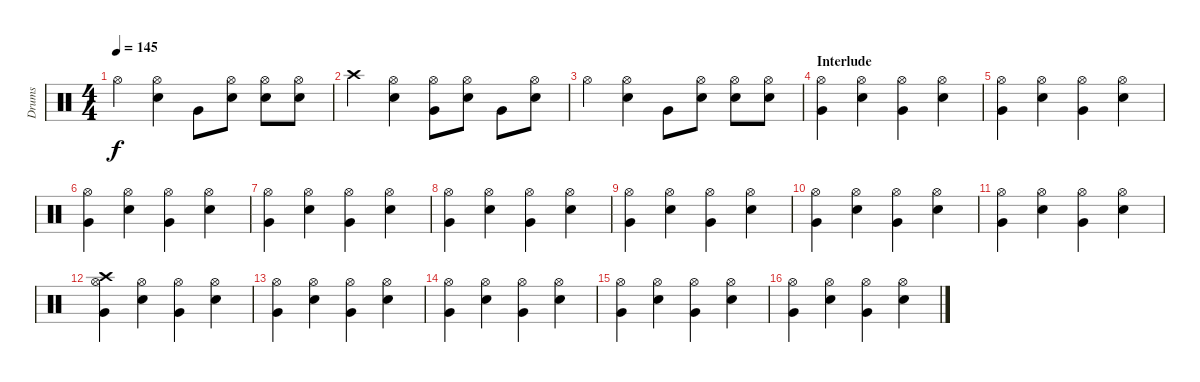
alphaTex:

\track ("Drums" "Drums") {instrument percussion}
\staff {score}
\articulation defaults
\ts (4 4)
\tempo 145
\clef neutral
\ks c "Hi-Hat (open)".4{dy f}
("Hi-Hat (open)" "Electric Snare (hit)").4 "Very Low Tom (hit)".8 ("Hi-Hat (open)" "Electric Snare (hit)").8 ("Hi-Hat (open)" "Electric Snare (hit)").8 ("Hi-Hat (open)" "Electric Snare (hit)").8 |
"Crash high (hit)".4 ("Hi-Hat (open)" "Electric Snare (hit)").4 ("Hi-Hat (open)" "Very Low Tom (hit)").8 ("Hi-Hat (open)" "Electric Snare (hit)").8 "Very Low Tom (hit)".8 ("Hi-Hat (open)" "Electric Snare (hit)").8 |
"Hi-Hat (open)".4 ("Hi-Hat (open)" "Electric Snare (hit)").4 "Very Low Tom (hit)".8 ("Hi-Hat (open)" "Electric Snare (hit)").8 ("Hi-Hat (open)" "Electric Snare (hit)").8 ("Hi-Hat (open)" "Electric Snare (hit)").8 |
\section ("" "Interlude")
("Hi-Hat (open)" "Very Low Tom (hit)").4 ("Hi-Hat (open)" "Electric Snare (hit)").4 ("Hi-Hat (open)" "Very Low Tom (hit)").4 ("Hi-Hat (open)" "Electric Snare (hit)").4 |
("Hi-Hat (open)" "Very Low Tom (hit)").4 ("Hi-Hat (open)" "Electric Snare (hit)").4 ("Hi-Hat (open)" "Very Low Tom (hit)").4 ("Hi-Hat (open)" "Electric Snare (hit)").4 |
("Hi-Hat (open)" "Very Low Tom (hit)").4 ("Hi-Hat (open)" "Electric Snare (hit)").4 ("Hi-Hat (open)" "Very Low Tom (hit)").4 ("Hi-Hat (open)" "Electric Snare (hit)").4 |
("Hi-Hat (open)" "Very Low Tom (hit)").4 ("Hi-Hat (open)" "Electric Snare (hit)").4 ("Hi-Hat (open)" "Very Low Tom (hit)").4 ("Hi-Hat (open)" "Electric Snare (hit)").4 |
("Hi-Hat (open)" "Very Low Tom (hit)").4 ("Hi-Hat (open)" "Electric Snare (hit)").4 ("Hi-Hat (open)" "Very Low Tom (hit)").4 ("Hi-Hat (open)" "Electric Snare (hit)").4 |
("Hi-Hat (open)" "Very Low Tom (hit)").4 ("Hi-Hat (open)" "Electric Snare (hit)").4 ("Hi-Hat (open)" "Very Low Tom (hit)").4 ("Hi-Hat (open)" "Electric Snare (hit)").4 |
("Hi-Hat (open)" "Very Low Tom (hit)").4 ("Hi-Hat (open)" "Electric Snare (hit)").4 ("Hi-Hat (open)" "Very Low Tom (hit)").4 ("Hi-Hat (open)" "Electric Snare (hit)").4 |
("Hi-Hat (open)" "Very Low Tom (hit)").4 ("Hi-Hat (open)" "Electric Snare (hit)").4 ("Hi-Hat (open)" "Very Low Tom (hit)").4 ("Hi-Hat (open)" "Electric Snare (hit)").4 |
("Crash high (hit)" "Hi-Hat (open)" "Very Low Tom (hit)").4 ("Hi-Hat (open)" "Electric Snare (hit)").4 ("Hi-Hat (open)" "Very Low Tom (hit)").4 ("Hi-Hat (open)" "Electric Snare (hit)").4 |
("Hi-Hat (open)" "Very Low Tom (hit)").4 ("Hi-Hat (open)" "Electric Snare (hit)").4 ("Hi-Hat (open)" "Very Low Tom (hit)").4 ("Hi-Hat (open)" "Electric Snare (hit)").4 |
("Hi-Hat (open)" "Very Low Tom (hit)").4 ("Hi-Hat (open)" "Electric Snare (hit)").4 ("Hi-Hat (open)" "Very Low Tom (hit)").4 ("Hi-Hat (open)" "Electric Snare (hit)").4 |
("Hi-Hat (open)" "Very Low Tom (hit)").4 ("Hi-Hat (open)" "Electric Snare (hit)").4 ("Hi-Hat (open)" "Very Low Tom (hit)").4 ("Hi-Hat (open)" "Electric Snare (hit)").4 |
("Hi-Hat (open)" "Very Low Tom (hit)").4 ("Hi-Hat (open)" "Electric Snare (hit)").4 ("Hi-Hat (open)" "Very Low Tom (hit)").4 ("Hi-Hat (open)" "Electric Snare (hit)").4
